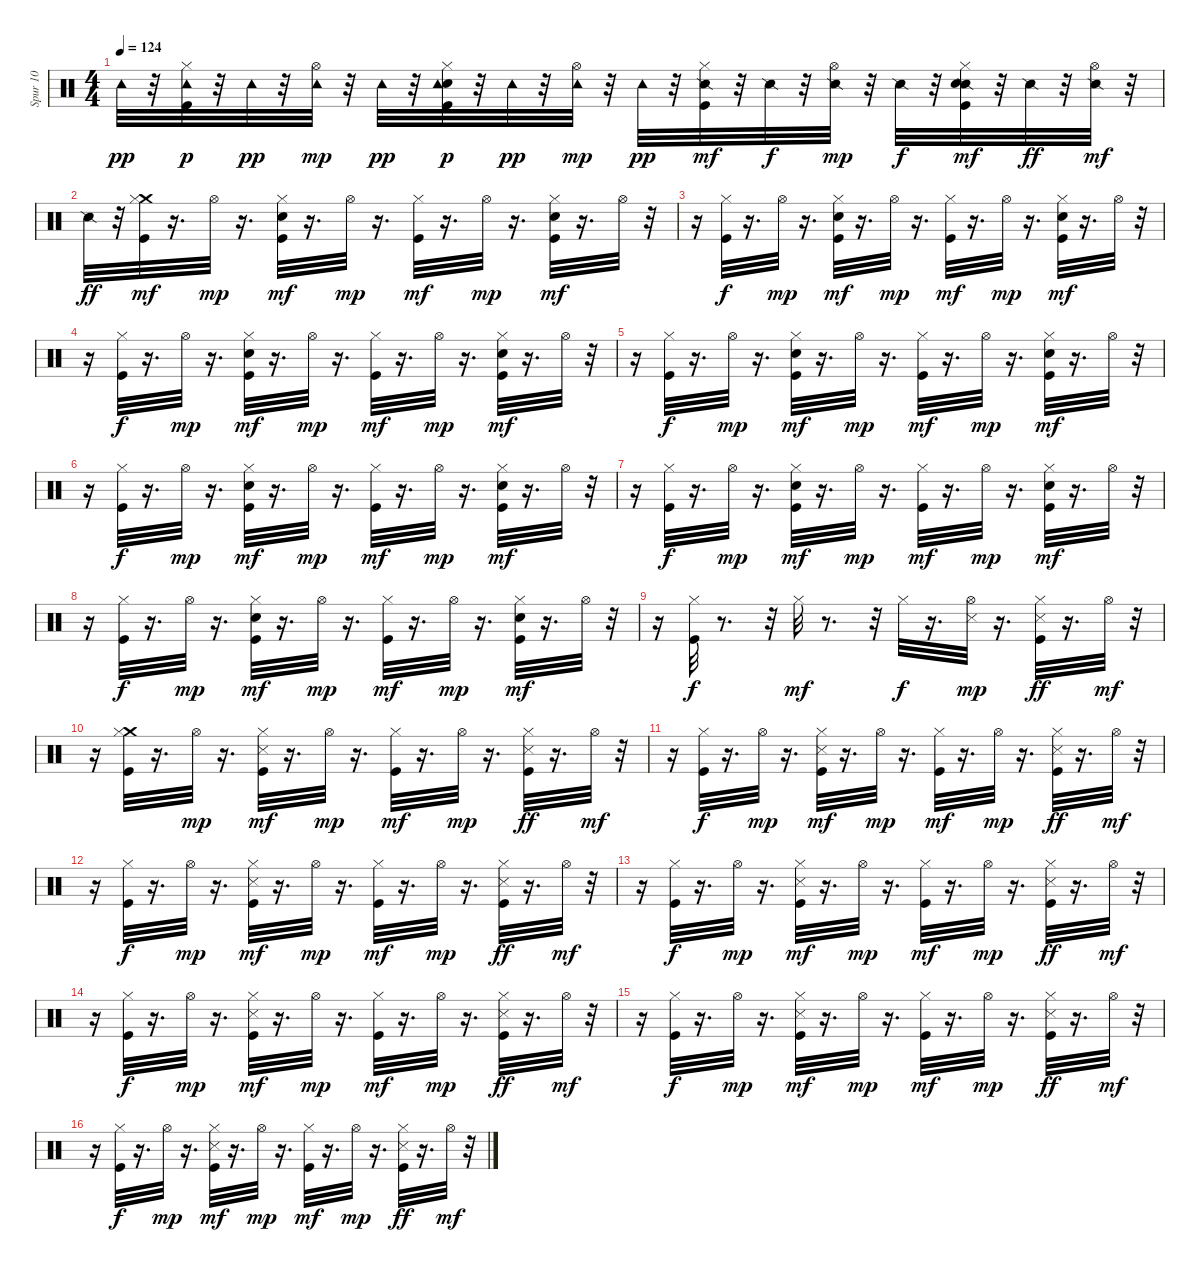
\track ("Spur 10" "Spur 10") {instrument percussion}
\staff {score}
\articulation defaults
\ts (4 4)
\tempo 124
\clef neutral
\ks c "Tambourine (hit)".32{dy pp}
r.32 ("Kick (hit)" "Hi-Hat (closed)" "Tambourine (hit)").32{dy p} r.32 "Tambourine (hit)".32{dy pp} r.32 ("Hi-Hat (open)" "Tambourine (hit)").32{dy mp} r.32 "Tambourine (hit)".32{dy pp} r.32 ("Kick (hit)" "Snare (hit) 2" "Hi-Hat (closed)" "Tambourine (hit)").32{dy p} r.32 "Tambourine (hit)".32{dy pp} r.32 ("Hi-Hat (open)" "Tambourine (hit)").32{dy mp} r.32 "Tambourine (hit)".32{dy pp} r.32 ("Snare (side stick) 2" "Kick (hit)" "Hi-Hat (closed)").32{dy mf} r.32 "Snare (side stick) 2".32{dy f} r.32 ("Snare (side stick) 2" "Hi-Hat (open)").32{dy mp balance 11} r.32 "Snare (side stick) 2".32{dy f} r.32 ("Snare (side stick) 2" "Kick (hit)" "Snare (hit) 2" "Hi-Hat (closed)").32{dy mf balance 8} r.32 "Snare (side stick) 2".32{dy ff} r.32 ("Snare (side stick) 2" "Hi-Hat (open)").32{dy mf balance 4} r.32 |
"Snare (side stick) 2".32{dy ff} r.32 ("Crash medium (hit)" "Kick (hit)" "Hi-Hat (closed)").32{dy mf balance 8} r.16{d} "Hi-Hat (open)".32{dy mp} r.16{d} ("Kick (hit)" "Snare (hit) 2" "Hi-Hat (closed)").32{dy mf} r.16{d} "Hi-Hat (open)".32{dy mp} r.16{d} ("Kick (hit)" "Hi-Hat (closed)").32{dy mf} r.16{d} "Hi-Hat (open)".32{dy mp} r.16{d} ("Kick (hit)" "Snare (hit) 2" "Hi-Hat (closed)").32{dy mf} r.16{d} "Hi-Hat (open)".32 r.32 |
r.16 ("Kick (hit)" "Hi-Hat (closed)").32{dy f} r.16{d} "Hi-Hat (open)".32{dy mp} r.16{d} ("Kick (hit)" "Snare (hit) 2" "Hi-Hat (closed)").32{dy mf} r.16{d} "Hi-Hat (open)".32{dy mp} r.16{d} ("Kick (hit)" "Hi-Hat (closed)").32{dy mf} r.16{d} "Hi-Hat (open)".32{dy mp} r.16{d} ("Kick (hit)" "Snare (hit) 2" "Hi-Hat (closed)").32{dy mf} r.16{d} "Hi-Hat (open)".32 r.32 |
r.16 ("Kick (hit)" "Hi-Hat (closed)").32{dy f} r.16{d} "Hi-Hat (open)".32{dy mp} r.16{d} ("Kick (hit)" "Snare (hit) 2" "Hi-Hat (closed)").32{dy mf} r.16{d} "Hi-Hat (open)".32{dy mp} r.16{d} ("Kick (hit)" "Hi-Hat (closed)").32{dy mf} r.16{d} "Hi-Hat (open)".32{dy mp} r.16{d} ("Kick (hit)" "Snare (hit) 2" "Hi-Hat (closed)").32{dy mf} r.16{d} "Hi-Hat (open)".32 r.32 |
r.16 ("Kick (hit)" "Hi-Hat (closed)").32{dy f} r.16{d} "Hi-Hat (open)".32{dy mp} r.16{d} ("Kick (hit)" "Snare (hit) 2" "Hi-Hat (closed)").32{dy mf} r.16{d} "Hi-Hat (open)".32{dy mp} r.16{d} ("Kick (hit)" "Hi-Hat (closed)").32{dy mf} r.16{d} "Hi-Hat (open)".32{dy mp} r.16{d} ("Kick (hit)" "Snare (hit) 2" "Hi-Hat (closed)").32{dy mf} r.16{d} "Hi-Hat (open)".32 r.32 |
r.16 ("Kick (hit)" "Hi-Hat (closed)").32{dy f} r.16{d} "Hi-Hat (open)".32{dy mp} r.16{d} ("Kick (hit)" "Snare (hit) 2" "Hi-Hat (closed)").32{dy mf} r.16{d} "Hi-Hat (open)".32{dy mp} r.16{d} ("Kick (hit)" "Hi-Hat (closed)").32{dy mf} r.16{d} "Hi-Hat (open)".32{dy mp} r.16{d} ("Kick (hit)" "Snare (hit) 2" "Hi-Hat (closed)").32{dy mf} r.16{d} "Hi-Hat (open)".32 r.32 |
r.16 ("Kick (hit)" "Hi-Hat (closed)").32{dy f} r.16{d} "Hi-Hat (open)".32{dy mp} r.16{d} ("Kick (hit)" "Snare (hit) 2" "Hi-Hat (closed)").32{dy mf} r.16{d} "Hi-Hat (open)".32{dy mp} r.16{d} ("Kick (hit)" "Hi-Hat (closed)").32{dy mf} r.16{d} "Hi-Hat (open)".32{dy mp} r.16{d} ("Kick (hit)" "Snare (hit) 2" "Hi-Hat (closed)").32{dy mf} r.16{d} "Hi-Hat (open)".32 r.32 |
r.16 ("Kick (hit)" "Hi-Hat (closed)").32{dy f} r.16{d} "Hi-Hat (open)".32{dy mp} r.16{d} ("Kick (hit)" "Snare (hit) 2" "Hi-Hat (closed)").32{dy mf} r.16{d} "Hi-Hat (open)".32{dy mp} r.16{d} ("Kick (hit)" "Hi-Hat (closed)").32{dy mf} r.16{d} "Hi-Hat (open)".32{dy mp} r.16{d} ("Kick (hit)" "Snare (hit) 2" "Hi-Hat (closed)").32{dy mf} r.16{d} "Hi-Hat (open)".32 r.32 |
r.16 ("Kick (hit)" "Hi-Hat (closed)").32{dy f} r.8{d} r.32 "Hi-Hat (closed)".32{dy mf} r.8{d} r.32 "Hi-Hat (closed)".32{dy f} r.16{d} ("Snare (side stick) 3" "Hi-Hat (open)").32{dy mp} r.16{d} ("Kick (hit)" "Snare (side stick) 3" "Hi-Hat (closed)").32{dy ff} r.16{d} "Hi-Hat (open)".32{dy mf} r.32 |
r.16 ("Crash medium (hit)" "Kick (hit)" "Hi-Hat (closed)").32 r.16{d} "Hi-Hat (open)".32{dy mp} r.16{d} ("Kick (hit)" "Snare (side stick) 3" "Hi-Hat (closed)").32{dy mf} r.16{d} "Hi-Hat (open)".32{dy mp} r.16{d} ("Kick (hit)" "Hi-Hat (closed)").32{dy mf} r.16{d} "Hi-Hat (open)".32{dy mp} r.16{d} ("Kick (hit)" "Snare (side stick) 3" "Hi-Hat (closed)").32{dy ff} r.16{d} "Hi-Hat (open)".32{dy mf} r.32 |
r.16 ("Kick (hit)" "Hi-Hat (closed)").32{dy f} r.16{d} "Hi-Hat (open)".32{dy mp} r.16{d} ("Kick (hit)" "Snare (side stick) 3" "Hi-Hat (closed)").32{dy mf} r.16{d} "Hi-Hat (open)".32{dy mp} r.16{d} ("Kick (hit)" "Hi-Hat (closed)").32{dy mf} r.16{d} "Hi-Hat (open)".32{dy mp} r.16{d} ("Kick (hit)" "Snare (side stick) 3" "Hi-Hat (closed)").32{dy ff} r.16{d} "Hi-Hat (open)".32{dy mf} r.32 |
r.16 ("Kick (hit)" "Hi-Hat (closed)").32{dy f} r.16{d} "Hi-Hat (open)".32{dy mp} r.16{d} ("Kick (hit)" "Snare (side stick) 3" "Hi-Hat (closed)").32{dy mf} r.16{d} "Hi-Hat (open)".32{dy mp} r.16{d} ("Kick (hit)" "Hi-Hat (closed)").32{dy mf} r.16{d} "Hi-Hat (open)".32{dy mp} r.16{d} ("Kick (hit)" "Snare (side stick) 3" "Hi-Hat (closed)").32{dy ff} r.16{d} "Hi-Hat (open)".32{dy mf} r.32 |
r.16 ("Kick (hit)" "Hi-Hat (closed)").32{dy f} r.16{d} "Hi-Hat (open)".32{dy mp} r.16{d} ("Kick (hit)" "Snare (side stick) 3" "Hi-Hat (closed)").32{dy mf} r.16{d} "Hi-Hat (open)".32{dy mp} r.16{d} ("Kick (hit)" "Hi-Hat (closed)").32{dy mf} r.16{d} "Hi-Hat (open)".32{dy mp} r.16{d} ("Kick (hit)" "Snare (side stick) 3" "Hi-Hat (closed)").32{dy ff} r.16{d} "Hi-Hat (open)".32{dy mf} r.32 |
r.16 ("Kick (hit)" "Hi-Hat (closed)").32{dy f} r.16{d} "Hi-Hat (open)".32{dy mp} r.16{d} ("Kick (hit)" "Snare (side stick) 3" "Hi-Hat (closed)").32{dy mf} r.16{d} "Hi-Hat (open)".32{dy mp} r.16{d} ("Kick (hit)" "Hi-Hat (closed)").32{dy mf} r.16{d} "Hi-Hat (open)".32{dy mp} r.16{d} ("Kick (hit)" "Snare (side stick) 3" "Hi-Hat (closed)").32{dy ff} r.16{d} "Hi-Hat (open)".32{dy mf} r.32 |
r.16 ("Kick (hit)" "Hi-Hat (closed)").32{dy f} r.16{d} "Hi-Hat (open)".32{dy mp} r.16{d} ("Kick (hit)" "Snare (side stick) 3" "Hi-Hat (closed)").32{dy mf} r.16{d} "Hi-Hat (open)".32{dy mp} r.16{d} ("Kick (hit)" "Hi-Hat (closed)").32{dy mf} r.16{d} "Hi-Hat (open)".32{dy mp} r.16{d} ("Kick (hit)" "Snare (side stick) 3" "Hi-Hat (closed)").32{dy ff} r.16{d} "Hi-Hat (open)".32{dy mf} r.32 |
r.16 ("Kick (hit)" "Hi-Hat (closed)").32{dy f} r.16{d} "Hi-Hat (open)".32{dy mp} r.16{d} ("Kick (hit)" "Snare (side stick) 3" "Hi-Hat (closed)").32{dy mf} r.16{d} "Hi-Hat (open)".32{dy mp} r.16{d} ("Kick (hit)" "Hi-Hat (closed)").32{dy mf} r.16{d} "Hi-Hat (open)".32{dy mp} r.16{d} ("Kick (hit)" "Snare (side stick) 3" "Hi-Hat (closed)").32{dy ff} r.16{d} "Hi-Hat (open)".32{dy mf} r.32
